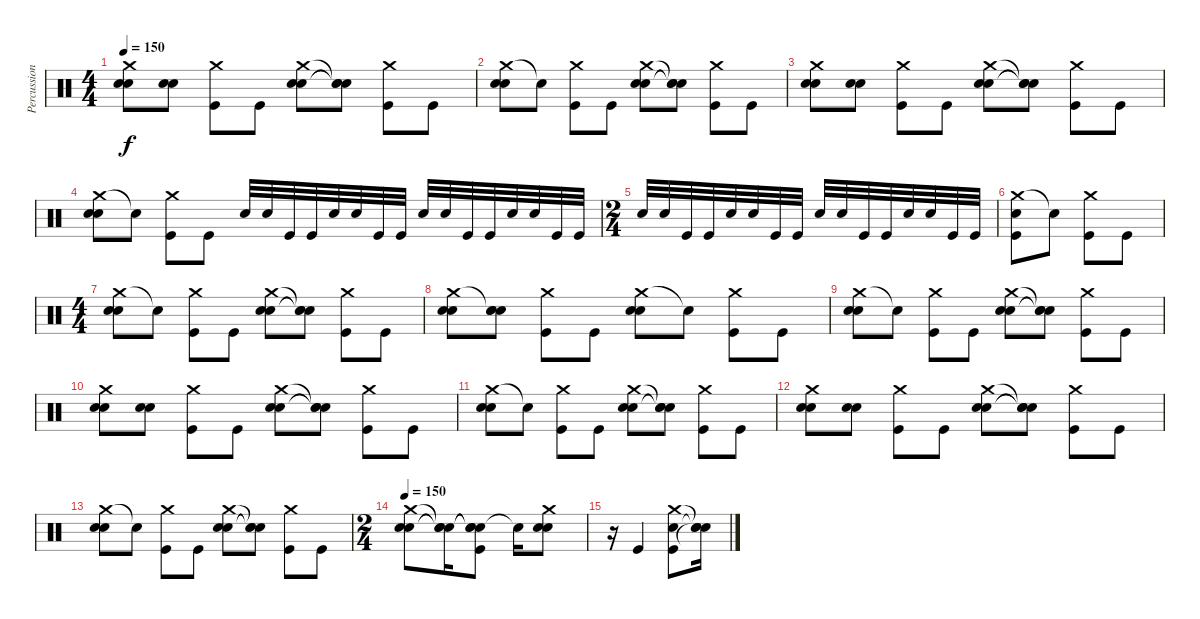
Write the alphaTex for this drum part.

\track ("Percussions" "Percussion") {instrument percussion}
\staff {score}
\articulation defaults
\ts (4 4)
\tempo 150
\clef neutral
\ks c
("Crash medium (hit)" "Electric Snare (hit)" "Electric Snare (hit)").8{dy f} ("Electric Snare (hit)" "Electric Snare (hit)").8 ("Crash medium (hit)" "Kick (hit)").8 "Kick (hit)".8 ("Crash medium (hit)" "Electric Snare (hit)" "Electric Snare (hit)").8 ("Snare (hit)"{t} "Snare (hit)"{t} "Snare (hit)"{t}).8 ("Crash medium (hit)" "Kick (hit)").8 "Kick (hit)".8 |
("Crash medium (hit)" "Electric Snare (hit)" "Electric Snare (hit)").8 "Snare (hit)"{t}.8 ("Crash medium (hit)" "Kick (hit)").8 "Kick (hit)".8 ("Crash medium (hit)" "Electric Snare (hit)" "Electric Snare (hit)").8 ("Snare (hit)"{t} "Snare (hit)"{t} "Snare (hit)"{t}).8 ("Crash medium (hit)" "Kick (hit)").8 "Kick (hit)".8 |
("Crash medium (hit)" "Electric Snare (hit)" "Electric Snare (hit)").8 ("Electric Snare (hit)" "Electric Snare (hit)").8 ("Crash medium (hit)" "Kick (hit)").8 "Kick (hit)".8 ("Crash medium (hit)" "Electric Snare (hit)" "Electric Snare (hit)").8 ("Snare (hit)"{t} "Snare (hit)"{t} "Snare (hit)"{t}).8 ("Crash medium (hit)" "Kick (hit)").8 "Kick (hit)".8 |
("Crash medium (hit)" "Electric Snare (hit)" "Electric Snare (hit)").8 "Snare (hit)"{t}.8 ("Crash medium (hit)" "Kick (hit)").8 "Kick (hit)".8 "Electric Snare (hit)".32{volume 13} "Electric Snare (hit)".32 "Kick (hit)".32 "Kick (hit)".32 "Electric Snare (hit)".32 "Electric Snare (hit)".32 "Kick (hit)".32 "Kick (hit)".32 "Electric Snare (hit)".32 "Electric Snare (hit)".32 "Kick (hit)".32 "Kick (hit)".32 "Electric Snare (hit)".32 "Electric Snare (hit)".32 "Kick (hit)".32 "Kick (hit)".32 |
\ts (2 4)
"Electric Snare (hit)".32 "Electric Snare (hit)".32 "Kick (hit)".32 "Kick (hit)".32 "Electric Snare (hit)".32 "Electric Snare (hit)".32 "Kick (hit)".32 "Kick (hit)".32 "Electric Snare (hit)".32 "Electric Snare (hit)".32 "Kick (hit)".32 "Kick (hit)".32 "Electric Snare (hit)".32 "Electric Snare (hit)".32 "Kick (hit)".32 "Kick (hit)".32 |
("Crash medium (hit)" "Electric Snare (hit)" "Kick (hit)").8{volume 16} "Snare (hit)"{t}.8 ("Crash medium (hit)" "Kick (hit)").8 "Kick (hit)".8 |
\ts (4 4)
("Crash medium (hit)" "Electric Snare (hit)" "Electric Snare (hit)").8 "Snare (hit)"{t}.8 ("Crash medium (hit)" "Kick (hit)").8 "Kick (hit)".8 ("Crash medium (hit)" "Electric Snare (hit)" "Electric Snare (hit)").8 ("Snare (hit)"{t} "Snare (hit)"{t} "Snare (hit)"{t}).8 ("Crash medium (hit)" "Kick (hit)").8 "Kick (hit)".8 |
("Crash medium (hit)" "Electric Snare (hit)" "Electric Snare (hit)").8 ("Snare (hit)"{t} "Electric Snare (hit)" "Electric Snare (hit)").8 ("Crash medium (hit)" "Kick (hit)").8 "Kick (hit)".8 ("Crash medium (hit)" "Electric Snare (hit)" "Electric Snare (hit)").8 "Snare (hit)"{t}.8 ("Crash medium (hit)" "Kick (hit)").8 "Kick (hit)".8 |
("Crash medium (hit)" "Electric Snare (hit)" "Electric Snare (hit)").8 "Snare (hit)"{t}.8 ("Crash medium (hit)" "Kick (hit)").8 "Kick (hit)".8 ("Crash medium (hit)" "Electric Snare (hit)" "Electric Snare (hit)").8 ("Snare (hit)"{t} "Snare (hit)"{t} "Snare (hit)"{t}).8 ("Crash medium (hit)" "Kick (hit)").8 "Kick (hit)".8 |
("Crash medium (hit)" "Electric Snare (hit)" "Electric Snare (hit)").8 ("Electric Snare (hit)" "Electric Snare (hit)").8 ("Crash medium (hit)" "Kick (hit)").8 "Kick (hit)".8 ("Crash medium (hit)" "Electric Snare (hit)" "Electric Snare (hit)").8 ("Snare (hit)"{t} "Snare (hit)"{t} "Snare (hit)"{t}).8 ("Crash medium (hit)" "Kick (hit)").8 "Kick (hit)".8 |
("Crash medium (hit)" "Electric Snare (hit)" "Electric Snare (hit)").8 "Snare (hit)"{t}.8 ("Crash medium (hit)" "Kick (hit)").8 "Kick (hit)".8 ("Crash medium (hit)" "Electric Snare (hit)" "Electric Snare (hit)").8 ("Snare (hit)"{t} "Snare (hit)"{t} "Snare (hit)"{t}).8 ("Crash medium (hit)" "Kick (hit)").8 "Kick (hit)".8 |
("Crash medium (hit)" "Electric Snare (hit)" "Electric Snare (hit)").8 ("Electric Snare (hit)" "Electric Snare (hit)").8 ("Crash medium (hit)" "Kick (hit)").8 "Kick (hit)".8 ("Crash medium (hit)" "Electric Snare (hit)" "Electric Snare (hit)").8 ("Snare (hit)"{t} "Snare (hit)"{t} "Snare (hit)"{t}).8 ("Crash medium (hit)" "Kick (hit)").8 "Kick (hit)".8 |
("Crash medium (hit)" "Electric Snare (hit)" "Electric Snare (hit)").8 "Snare (hit)"{t}.8 ("Crash medium (hit)" "Kick (hit)").8 "Kick (hit)".8 ("Crash medium (hit)" "Electric Snare (hit)" "Electric Snare (hit)").8 ("Snare (hit)"{t} "Snare (hit)"{t} "Snare (hit)"{t}).8 ("Crash medium (hit)" "Kick (hit)").8 "Kick (hit)".8 |
\ts (2 4)
\tempo 150
("Crash medium (hit)" "Electric Snare (hit)" "Electric Snare (hit)").8 ("Snare (hit)"{t} "Snare (hit)"{t} "Snare (hit)"{t}).16 ("Snare (hit)"{t} "Snare (hit)"{t} "Snare (hit)"{t} "Kick (hit)").8 "Snare (hit)"{t}.16 ("Crash medium (hit)" "Electric Snare (hit)" "Electric Snare (hit)").8 |
r.16 "Kick (hit)".4 ("Crash medium (hit)" "Electric Snare (hit)" "Kick (hit)").8 ("Snare (hit)"{t} "Snare (hit)"{t} "Snare (hit)"{t}).16
